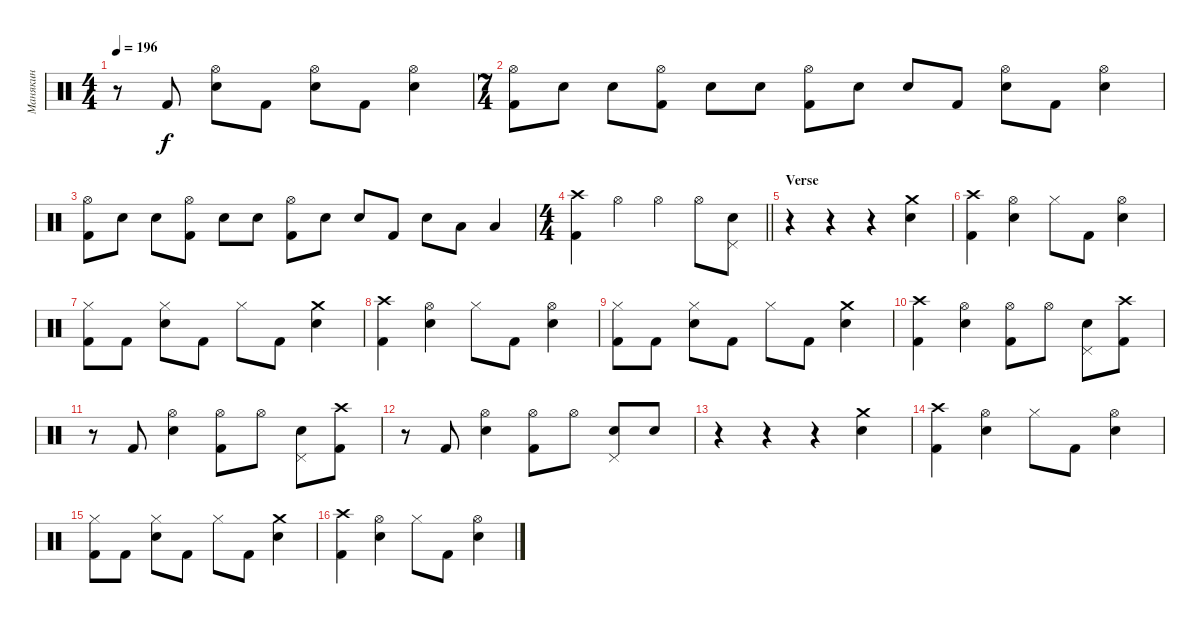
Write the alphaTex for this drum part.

\track ("Манякин" "Манякин") {instrument percussion}
\staff {score}
\articulation defaults
\ts (4 4)
\tempo 196
\clef neutral
\ks c
r.8{dy f} "Kick (hit) 2".8 ("Hi-Hat (open)" "Electric Snare (hit)").8 "Kick (hit) 2".8 ("Hi-Hat (open)" "Electric Snare (hit)").8 "Kick (hit) 2".8 ("Hi-Hat (open)" "Electric Snare (hit)").4 |
\ts (7 4)
("Hi-Hat (open)" "Kick (hit) 2").8 "Electric Snare (hit)".8 "Electric Snare (hit)".8 ("Hi-Hat (open)" "Kick (hit) 2").8 "Electric Snare (hit)".8 "Electric Snare (hit)".8 ("Hi-Hat (open)" "Kick (hit) 2").8 "Electric Snare (hit)".8 "Electric Snare (hit)".8 "Kick (hit) 2".8 ("Hi-Hat (open)" "Electric Snare (hit)").8 "Kick (hit) 2".8 ("Hi-Hat (open)" "Electric Snare (hit)").4 |
("Hi-Hat (open)" "Kick (hit) 2").8 "Electric Snare (hit)".8 "Electric Snare (hit)".8 ("Hi-Hat (open)" "Kick (hit) 2").8 "Electric Snare (hit)".8 "Electric Snare (hit)".8 ("Hi-Hat (open)" "Kick (hit) 2").8 "Electric Snare (hit)".8 "Electric Snare (hit)".8 "Kick (hit) 2".8 "Electric Snare (hit)".8 "Low Tom (hit)".8 "Low Tom (hit)".4 |
\ts (4 4)
\barLineRight lightlight
("Crash high (hit)" "Kick (hit) 2").4 "Hi-Hat (open)".4 "Hi-Hat (open)".4 "Hi-Hat (open)".8 ("Electric Snare (hit)" "Pedal Hi-Hat (hit)").8 |
\section ("" "Verse")
r.4 r.4 r.4 ("Crash medium (hit)" "Electric Snare (hit)").4 |
("Crash high (hit)" "Kick (hit) 2").4 ("Hi-Hat (open)" "Electric Snare (hit)").4 "Hi-Hat (closed)".8 "Kick (hit) 2".8 ("Hi-Hat (open)" "Electric Snare (hit)").4 |
("Hi-Hat (closed)" "Kick (hit) 2").8 "Kick (hit) 2".8 ("Hi-Hat (closed)" "Electric Snare (hit)").8 "Kick (hit) 2".8 "Hi-Hat (closed)".8 "Kick (hit) 2".8 ("Crash medium (hit)" "Electric Snare (hit)").4 |
("Crash high (hit)" "Kick (hit) 2").4 ("Hi-Hat (open)" "Electric Snare (hit)").4 "Hi-Hat (closed)".8 "Kick (hit) 2".8 ("Hi-Hat (open)" "Electric Snare (hit)").4 |
("Hi-Hat (closed)" "Kick (hit) 2").8 "Kick (hit) 2".8 ("Hi-Hat (closed)" "Electric Snare (hit)").8 "Kick (hit) 2".8 "Hi-Hat (closed)".8 "Kick (hit) 2".8 ("Crash medium (hit)" "Electric Snare (hit)").4 |
("Crash high (hit)" "Kick (hit) 2").4 ("Hi-Hat (open)" "Electric Snare (hit)").4 ("Hi-Hat (open)" "Kick (hit) 2").8 "Hi-Hat (open)".8 ("Electric Snare (hit)" "Pedal Hi-Hat (hit)").8 ("Crash high (hit)" "Kick (hit) 2").8 |
r.8 "Kick (hit) 2".8 ("Hi-Hat (open)" "Electric Snare (hit)").4 ("Hi-Hat (open)" "Kick (hit) 2").8 "Hi-Hat (open)".8 ("Electric Snare (hit)" "Pedal Hi-Hat (hit)").8 ("Crash high (hit)" "Kick (hit) 2").8 |
r.8 "Kick (hit) 2".8 ("Hi-Hat (open)" "Electric Snare (hit)").4 ("Hi-Hat (open)" "Kick (hit) 2").8 "Hi-Hat (open)".8 ("Electric Snare (hit)" "Pedal Hi-Hat (hit)").8 "Electric Snare (hit)".8 |
r.4 r.4 r.4 ("Crash medium (hit)" "Electric Snare (hit)").4 |
("Crash high (hit)" "Kick (hit) 2").4 ("Hi-Hat (open)" "Electric Snare (hit)").4 "Hi-Hat (closed)".8 "Kick (hit) 2".8 ("Hi-Hat (open)" "Electric Snare (hit)").4 |
("Hi-Hat (closed)" "Kick (hit) 2").8 "Kick (hit) 2".8 ("Hi-Hat (closed)" "Electric Snare (hit)").8 "Kick (hit) 2".8 "Hi-Hat (closed)".8 "Kick (hit) 2".8 ("Crash medium (hit)" "Electric Snare (hit)").4 |
("Crash high (hit)" "Kick (hit) 2").4 ("Hi-Hat (open)" "Electric Snare (hit)").4 "Hi-Hat (closed)".8 "Kick (hit) 2".8 ("Hi-Hat (open)" "Electric Snare (hit)").4
